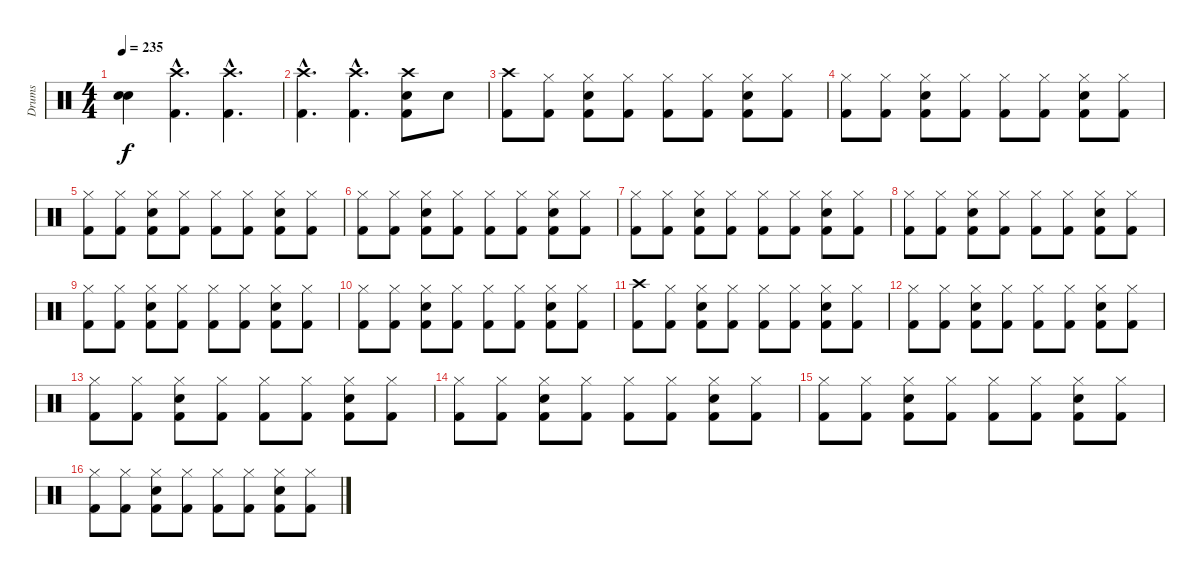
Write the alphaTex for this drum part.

\track ("Drums" "Drums") {instrument percussion}
\staff {score}
\articulation defaults
\ts (4 4)
\tempo 235
\clef neutral
\ks c
("Snare (hit)"{t} "Snare (hit)"{t}).4{dy f} ("Kick (hit) 2"{hac} "Crash high (hit)"{hac}).4{d} ("Kick (hit) 2"{hac} "Crash high (hit)"{hac}).4{d} |
("Kick (hit) 2"{hac} "Crash high (hit)"{hac}).4{d} ("Kick (hit) 2"{hac} "Crash high (hit)"{hac}).4{d} ("Kick (hit) 2" "Crash high (hit)" "Snare (hit) 2").8 "Snare (hit) 2".8 |
("Kick (hit) 2" "Crash high (hit)").8 ("Kick (hit) 2" "Hi-Hat (closed)").8 ("Kick (hit) 2" "Snare (hit) 2" "Hi-Hat (closed)").8 ("Kick (hit) 2" "Hi-Hat (closed)").8 ("Kick (hit) 2" "Hi-Hat (closed)").8 ("Kick (hit) 2" "Hi-Hat (closed)").8 ("Kick (hit) 2" "Hi-Hat (closed)" "Snare (hit) 2").8 ("Kick (hit) 2" "Hi-Hat (closed)").8 |
("Kick (hit) 2" "Hi-Hat (closed)").8 ("Kick (hit) 2" "Hi-Hat (closed)").8 ("Kick (hit) 2" "Snare (hit) 2" "Hi-Hat (closed)").8 ("Kick (hit) 2" "Hi-Hat (closed)").8 ("Kick (hit) 2" "Hi-Hat (closed)").8 ("Kick (hit) 2" "Hi-Hat (closed)").8 ("Kick (hit) 2" "Hi-Hat (closed)" "Snare (hit) 2").8 ("Kick (hit) 2" "Hi-Hat (closed)").8 |
("Kick (hit) 2" "Hi-Hat (closed)").8 ("Kick (hit) 2" "Hi-Hat (closed)").8 ("Kick (hit) 2" "Snare (hit) 2" "Hi-Hat (closed)").8 ("Kick (hit) 2" "Hi-Hat (closed)").8 ("Kick (hit) 2" "Hi-Hat (closed)").8 ("Kick (hit) 2" "Hi-Hat (closed)").8 ("Kick (hit) 2" "Hi-Hat (closed)" "Snare (hit) 2").8 ("Kick (hit) 2" "Hi-Hat (closed)").8 |
("Kick (hit) 2" "Hi-Hat (closed)").8 ("Kick (hit) 2" "Hi-Hat (closed)").8 ("Kick (hit) 2" "Snare (hit) 2" "Hi-Hat (closed)").8 ("Kick (hit) 2" "Hi-Hat (closed)").8 ("Kick (hit) 2" "Hi-Hat (closed)").8 ("Kick (hit) 2" "Hi-Hat (closed)").8 ("Kick (hit) 2" "Hi-Hat (closed)" "Snare (hit) 2").8 ("Kick (hit) 2" "Hi-Hat (closed)").8 |
("Kick (hit) 2" "Hi-Hat (closed)").8 ("Kick (hit) 2" "Hi-Hat (closed)").8 ("Kick (hit) 2" "Snare (hit) 2" "Hi-Hat (closed)").8 ("Kick (hit) 2" "Hi-Hat (closed)").8 ("Kick (hit) 2" "Hi-Hat (closed)").8 ("Kick (hit) 2" "Hi-Hat (closed)").8 ("Kick (hit) 2" "Hi-Hat (closed)" "Snare (hit) 2").8 ("Kick (hit) 2" "Hi-Hat (closed)").8 |
("Kick (hit) 2" "Hi-Hat (closed)").8 ("Kick (hit) 2" "Hi-Hat (closed)").8 ("Kick (hit) 2" "Snare (hit) 2" "Hi-Hat (closed)").8 ("Kick (hit) 2" "Hi-Hat (closed)").8 ("Kick (hit) 2" "Hi-Hat (closed)").8 ("Kick (hit) 2" "Hi-Hat (closed)").8 ("Kick (hit) 2" "Hi-Hat (closed)" "Snare (hit) 2").8 ("Kick (hit) 2" "Hi-Hat (closed)").8 |
("Kick (hit) 2" "Hi-Hat (closed)").8 ("Kick (hit) 2" "Hi-Hat (closed)").8 ("Kick (hit) 2" "Snare (hit) 2" "Hi-Hat (closed)").8 ("Kick (hit) 2" "Hi-Hat (closed)").8 ("Kick (hit) 2" "Hi-Hat (closed)").8 ("Kick (hit) 2" "Hi-Hat (closed)").8 ("Kick (hit) 2" "Hi-Hat (closed)" "Snare (hit) 2").8 ("Kick (hit) 2" "Hi-Hat (closed)").8 |
("Kick (hit) 2" "Hi-Hat (closed)").8 ("Kick (hit) 2" "Hi-Hat (closed)").8 ("Kick (hit) 2" "Snare (hit) 2" "Hi-Hat (closed)").8 ("Kick (hit) 2" "Hi-Hat (closed)").8 ("Kick (hit) 2" "Hi-Hat (closed)").8 ("Kick (hit) 2" "Hi-Hat (closed)").8 ("Kick (hit) 2" "Hi-Hat (closed)" "Snare (hit) 2").8 ("Kick (hit) 2" "Hi-Hat (closed)").8 |
("Kick (hit) 2" "Crash high (hit)").8 ("Kick (hit) 2" "Hi-Hat (closed)").8 ("Kick (hit) 2" "Snare (hit) 2" "Hi-Hat (closed)").8 ("Kick (hit) 2" "Hi-Hat (closed)").8 ("Kick (hit) 2" "Hi-Hat (closed)").8 ("Kick (hit) 2" "Hi-Hat (closed)").8 ("Kick (hit) 2" "Hi-Hat (closed)" "Snare (hit) 2").8 ("Kick (hit) 2" "Hi-Hat (closed)").8 |
("Kick (hit) 2" "Hi-Hat (closed)").8 ("Kick (hit) 2" "Hi-Hat (closed)").8 ("Kick (hit) 2" "Snare (hit) 2" "Hi-Hat (closed)").8 ("Kick (hit) 2" "Hi-Hat (closed)").8 ("Kick (hit) 2" "Hi-Hat (closed)").8 ("Kick (hit) 2" "Hi-Hat (closed)").8 ("Kick (hit) 2" "Hi-Hat (closed)" "Snare (hit) 2").8 ("Kick (hit) 2" "Hi-Hat (closed)").8 |
("Kick (hit) 2" "Hi-Hat (closed)").8 ("Kick (hit) 2" "Hi-Hat (closed)").8 ("Kick (hit) 2" "Snare (hit) 2" "Hi-Hat (closed)").8 ("Kick (hit) 2" "Hi-Hat (closed)").8 ("Kick (hit) 2" "Hi-Hat (closed)").8 ("Kick (hit) 2" "Hi-Hat (closed)").8 ("Kick (hit) 2" "Hi-Hat (closed)" "Snare (hit) 2").8 ("Kick (hit) 2" "Hi-Hat (closed)").8 |
("Kick (hit) 2" "Hi-Hat (closed)").8 ("Kick (hit) 2" "Hi-Hat (closed)").8 ("Kick (hit) 2" "Snare (hit) 2" "Hi-Hat (closed)").8 ("Kick (hit) 2" "Hi-Hat (closed)").8 ("Kick (hit) 2" "Hi-Hat (closed)").8 ("Kick (hit) 2" "Hi-Hat (closed)").8 ("Kick (hit) 2" "Hi-Hat (closed)" "Snare (hit) 2").8 ("Kick (hit) 2" "Hi-Hat (closed)").8 |
("Kick (hit) 2" "Hi-Hat (closed)").8 ("Kick (hit) 2" "Hi-Hat (closed)").8 ("Kick (hit) 2" "Snare (hit) 2" "Hi-Hat (closed)").8 ("Kick (hit) 2" "Hi-Hat (closed)").8 ("Kick (hit) 2" "Hi-Hat (closed)").8 ("Kick (hit) 2" "Hi-Hat (closed)").8 ("Kick (hit) 2" "Hi-Hat (closed)" "Snare (hit) 2").8 ("Kick (hit) 2" "Hi-Hat (closed)").8 |
("Kick (hit) 2" "Hi-Hat (closed)").8 ("Kick (hit) 2" "Hi-Hat (closed)").8 ("Kick (hit) 2" "Snare (hit) 2" "Hi-Hat (closed)").8 ("Kick (hit) 2" "Hi-Hat (closed)").8 ("Kick (hit) 2" "Hi-Hat (closed)").8 ("Kick (hit) 2" "Hi-Hat (closed)").8 ("Kick (hit) 2" "Hi-Hat (closed)" "Snare (hit) 2").8 ("Kick (hit) 2" "Hi-Hat (closed)").8
